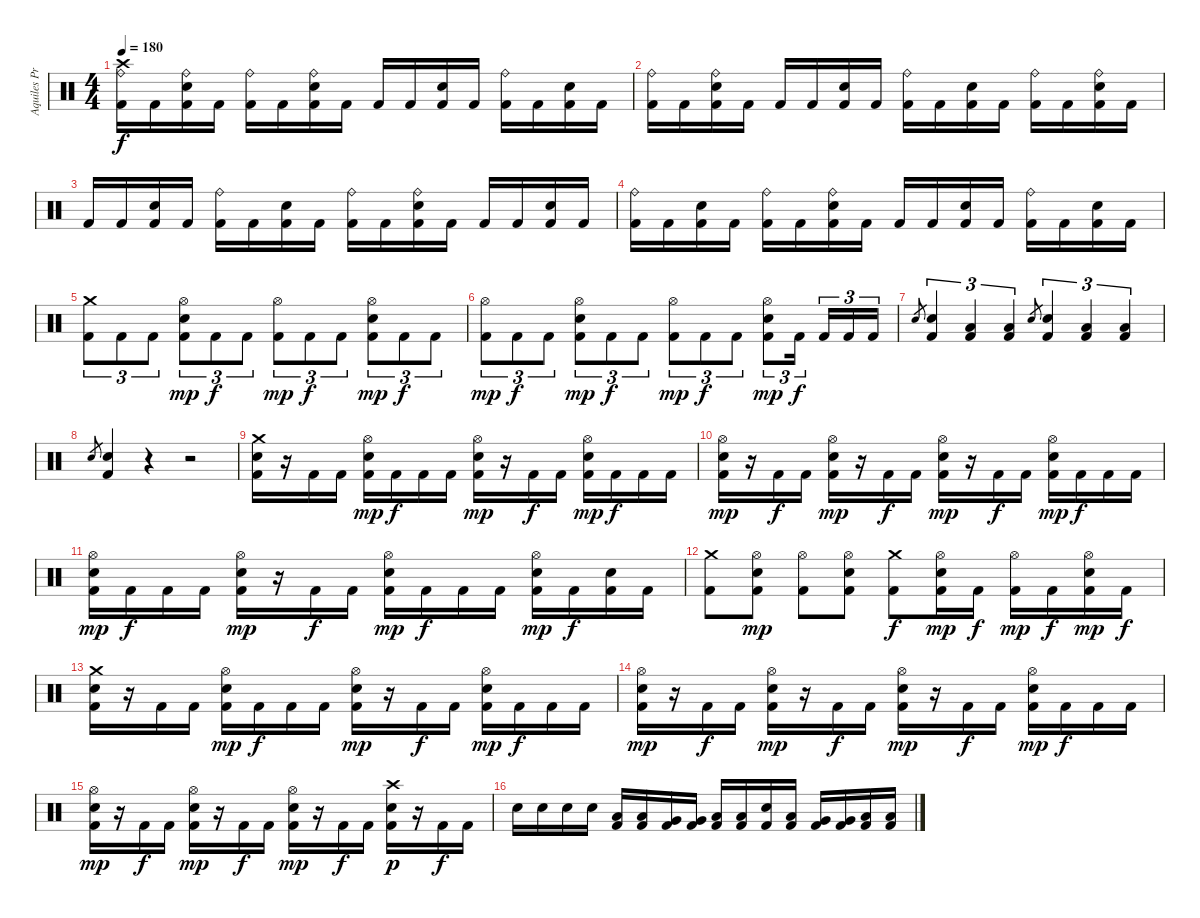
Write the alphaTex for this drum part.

\track ("Aquiles Priester" "Aquiles Pr") {instrument percussion}
\staff {score}
\articulation defaults
\ts (4 4)
\tempo 180
\clef neutral
\ks c
("Crash high (hit)" "Ride (bell)" "Kick (hit) 2").16{dy f} "Kick (hit) 2".16 ("Ride (bell)" "Snare (hit) 2" "Kick (hit) 2").16 "Kick (hit) 2".16 ("Ride (bell)" "Kick (hit) 2").16 "Kick (hit) 2".16 ("Ride (bell)" "Snare (hit) 2" "Kick (hit) 2").16 "Kick (hit) 2".16 "Kick (hit) 2".16 "Kick (hit) 2".16 ("Snare (hit) 2" "Kick (hit) 2").16 "Kick (hit) 2".16 ("Ride (bell)" "Kick (hit) 2").16 "Kick (hit) 2".16 ("Snare (hit) 2" "Kick (hit) 2").16 "Kick (hit) 2".16 |
("Ride (bell)" "Kick (hit) 2").16 "Kick (hit) 2".16 ("Ride (bell)" "Snare (hit) 2" "Kick (hit) 2").16 "Kick (hit) 2".16 "Kick (hit) 2".16 "Kick (hit) 2".16 ("Snare (hit) 2" "Kick (hit) 2").16 "Kick (hit) 2".16 ("Ride (bell)" "Kick (hit) 2").16 "Kick (hit) 2".16 ("Snare (hit) 2" "Kick (hit) 2").16 "Kick (hit) 2".16 ("Ride (bell)" "Kick (hit) 2").16 "Kick (hit) 2".16 ("Ride (bell)" "Snare (hit) 2" "Kick (hit) 2").16 "Kick (hit) 2".16 |
"Kick (hit) 2".16 "Kick (hit) 2".16 ("Snare (hit) 2" "Kick (hit) 2").16 "Kick (hit) 2".16 ("Ride (bell)" "Kick (hit) 2").16 "Kick (hit) 2".16 ("Snare (hit) 2" "Kick (hit) 2").16 "Kick (hit) 2".16 ("Ride (bell)" "Kick (hit) 2").16 "Kick (hit) 2".16 ("Ride (bell)" "Snare (hit) 2" "Kick (hit) 2").16 "Kick (hit) 2".16 "Kick (hit) 2".16 "Kick (hit) 2".16 ("Snare (hit) 2" "Kick (hit) 2").16 "Kick (hit) 2".16 |
("Ride (bell)" "Kick (hit) 2").16 "Kick (hit) 2".16 ("Snare (hit) 2" "Kick (hit) 2").16 "Kick (hit) 2".16 ("Ride (bell)" "Kick (hit) 2").16 "Kick (hit) 2".16 ("Ride (bell)" "Snare (hit) 2" "Kick (hit) 2").16 "Kick (hit) 2".16 "Kick (hit) 2".16 "Kick (hit) 2".16 ("Snare (hit) 2" "Kick (hit) 2").16 "Kick (hit) 2".16 ("Ride (bell)" "Kick (hit) 2").16 "Kick (hit) 2".16 ("Snare (hit) 2" "Kick (hit) 2").16 "Kick (hit) 2".16 |
("Crash medium (hit)" "Kick (hit) 2").8{tu (3 2)} "Kick (hit) 2".8{tu (3 2)} "Kick (hit) 2".8{tu (3 2)} ("Hi-Hat (open)" "Snare (hit) 2" "Kick (hit) 2").8{tu (3 2) dy mp} "Kick (hit) 2".8{tu (3 2) dy f} "Kick (hit) 2".8{tu (3 2)} ("Hi-Hat (open)" "Kick (hit) 2").8{tu (3 2) dy mp} "Kick (hit) 2".8{tu (3 2) dy f} "Kick (hit) 2".8{tu (3 2)} ("Hi-Hat (open)" "Snare (hit) 2" "Kick (hit) 2").8{tu (3 2) dy mp} "Kick (hit) 2".8{tu (3 2) dy f} "Kick (hit) 2".8{tu (3 2)} |
("Hi-Hat (open)" "Kick (hit) 2").8{tu (3 2) dy mp} "Kick (hit) 2".8{tu (3 2) dy f} "Kick (hit) 2".8{tu (3 2)} ("Hi-Hat (open)" "Snare (hit) 2" "Kick (hit) 2").8{tu (3 2) dy mp} "Kick (hit) 2".8{tu (3 2) dy f} "Kick (hit) 2".8{tu (3 2)} ("Hi-Hat (open)" "Kick (hit) 2").8{tu (3 2) dy mp} "Kick (hit) 2".8{tu (3 2) dy f} "Kick (hit) 2".8{tu (3 2)} ("Hi-Hat (open)" "Snare (hit) 2" "Kick (hit) 2").8{tu (3 2) dy mp} "Kick (hit) 2".16{tu (3 2) dy f} "Kick (hit) 2".16{tu (3 2)} "Kick (hit) 2".16{tu (3 2)} "Kick (hit) 2".16{tu (3 2)} |
"Snare (hit) 2".8{gr} ("Snare (hit) 2" "Kick (hit) 2").4{tu (3 2)} ("Low Floor Tom (hit)" "Kick (hit) 2").4{tu (3 2)} ("Low Floor Tom (hit)" "Kick (hit) 2").4{tu (3 2)} "Snare (hit) 2".8{gr} ("Snare (hit) 2" "Kick (hit) 2").4{tu (3 2)} ("Low Floor Tom (hit)" "Kick (hit) 2").4{tu (3 2)} ("Low Floor Tom (hit)" "Kick (hit) 2").4{tu (3 2)} |
"Snare (hit) 2".8{gr} ("Snare (hit) 2" "Kick (hit) 2").4 r.4 r.2 |
("Crash medium (hit)" "Snare (hit) 2" "Kick (hit) 2").16 r.16 "Kick (hit) 2".16 "Kick (hit) 2".16 ("Hi-Hat (open)" "Snare (hit) 2" "Kick (hit) 2").16{dy mp} "Kick (hit) 2".16{dy f} "Kick (hit) 2".16 "Kick (hit) 2".16 ("Hi-Hat (open)" "Snare (hit) 2" "Kick (hit) 2").16{dy mp} r.16 "Kick (hit) 2".16{dy f} "Kick (hit) 2".16 ("Hi-Hat (open)" "Snare (hit) 2" "Kick (hit) 2").16{dy mp} "Kick (hit) 2".16{dy f} "Kick (hit) 2".16 "Kick (hit) 2".16 |
("Hi-Hat (open)" "Snare (hit) 2" "Kick (hit) 2").16{dy mp} r.16 "Kick (hit) 2".16{dy f} "Kick (hit) 2".16 ("Hi-Hat (open)" "Snare (hit) 2" "Kick (hit) 2").16{dy mp} r.16 "Kick (hit) 2".16{dy f} "Kick (hit) 2".16 ("Hi-Hat (open)" "Snare (hit) 2" "Kick (hit) 2").16{dy mp} r.16 "Kick (hit) 2".16{dy f} "Kick (hit) 2".16 ("Hi-Hat (open)" "Snare (hit) 2" "Kick (hit) 2").16{dy mp} "Kick (hit) 2".16{dy f} "Kick (hit) 2".16 "Kick (hit) 2".16 |
("Hi-Hat (open)" "Snare (hit) 2" "Kick (hit) 2").16{dy mp} "Kick (hit) 2".16{dy f} "Kick (hit) 2".16 "Kick (hit) 2".16 ("Hi-Hat (open)" "Snare (hit) 2" "Kick (hit) 2").16{dy mp} r.16 "Kick (hit) 2".16{dy f} "Kick (hit) 2".16 ("Hi-Hat (open)" "Snare (hit) 2" "Kick (hit) 2").16{dy mp} "Kick (hit) 2".16{dy f} "Kick (hit) 2".16 "Kick (hit) 2".16 ("Hi-Hat (open)" "Snare (hit) 2" "Kick (hit) 2").16{dy mp} "Kick (hit) 2".16{dy f} ("Snare (hit) 2" "Kick (hit) 2").16 "Kick (hit) 2".16 |
("Crash medium (hit)" "Kick (hit) 2").8 ("Hi-Hat (open)" "Snare (hit) 2" "Kick (hit) 2").8{dy mp} ("Hi-Hat (open)" "Kick (hit) 2").8 ("Hi-Hat (open)" "Snare (hit) 2" "Kick (hit) 2").8 ("Crash medium (hit)" "Kick (hit) 2").8{dy f} ("Hi-Hat (open)" "Snare (hit) 2" "Kick (hit) 2").16{dy mp} "Kick (hit) 2".16{dy f} ("Hi-Hat (open)" "Kick (hit) 2").16{dy mp} "Kick (hit) 2".16{dy f} ("Hi-Hat (open)" "Snare (hit) 2" "Kick (hit) 2").16{dy mp} "Kick (hit) 2".16{dy f} |
("Crash medium (hit)" "Snare (hit) 2" "Kick (hit) 2").16 r.16 "Kick (hit) 2".16 "Kick (hit) 2".16 ("Hi-Hat (open)" "Snare (hit) 2" "Kick (hit) 2").16{dy mp} "Kick (hit) 2".16{dy f} "Kick (hit) 2".16 "Kick (hit) 2".16 ("Hi-Hat (open)" "Snare (hit) 2" "Kick (hit) 2").16{dy mp} r.16 "Kick (hit) 2".16{dy f} "Kick (hit) 2".16 ("Hi-Hat (open)" "Snare (hit) 2" "Kick (hit) 2").16{dy mp} "Kick (hit) 2".16{dy f} "Kick (hit) 2".16 "Kick (hit) 2".16 |
("Hi-Hat (open)" "Snare (hit) 2" "Kick (hit) 2").16{dy mp} r.16 "Kick (hit) 2".16{dy f} "Kick (hit) 2".16 ("Hi-Hat (open)" "Snare (hit) 2" "Kick (hit) 2").16{dy mp} r.16 "Kick (hit) 2".16{dy f} "Kick (hit) 2".16 ("Hi-Hat (open)" "Snare (hit) 2" "Kick (hit) 2").16{dy mp} r.16 "Kick (hit) 2".16{dy f} "Kick (hit) 2".16 ("Hi-Hat (open)" "Snare (hit) 2" "Kick (hit) 2").16{dy mp} "Kick (hit) 2".16{dy f} "Kick (hit) 2".16 "Kick (hit) 2".16 |
("Hi-Hat (open)" "Snare (hit) 2" "Kick (hit) 2").16{dy mp} r.16 "Kick (hit) 2".16{dy f} "Kick (hit) 2".16 ("Hi-Hat (open)" "Snare (hit) 2" "Kick (hit) 2").16{dy mp} r.16 "Kick (hit) 2".16{dy f} "Kick (hit) 2".16 ("Hi-Hat (open)" "Snare (hit) 2" "Kick (hit) 2").16{dy mp} r.16 "Kick (hit) 2".16{dy f} "Kick (hit) 2".16 ("Crash high (hit)" "Snare (hit) 2" "Kick (hit) 2").16{dy p} r.16 "Kick (hit) 2".16{dy f} "Kick (hit) 2".16 |
"Snare (hit) 2".16 "Snare (hit) 2".16 "Snare (hit) 2".16 "Snare (hit) 2".16 ("Low Tom (hit)" "Kick (hit) 2").16 ("Low Tom (hit)" "Kick (hit) 2").16 ("Very Low Tom (hit)" "Kick (hit) 2").16 ("Very Low Tom (hit)" "Kick (hit) 2").16 ("Low Tom (hit)" "Kick (hit) 2").16 ("Low Tom (hit)" "Kick (hit) 2").16 ("Snare (hit) 2" "Kick (hit) 2").16 ("Low Tom (hit)" "Kick (hit) 2").16 ("Very Low Tom (hit)" "Kick (hit) 2").16 ("Very Low Tom (hit)" "Kick (hit) 2").16 ("Low Floor Tom (hit)" "Kick (hit) 2").16 ("Low Floor Tom (hit)" "Kick (hit) 2").16
